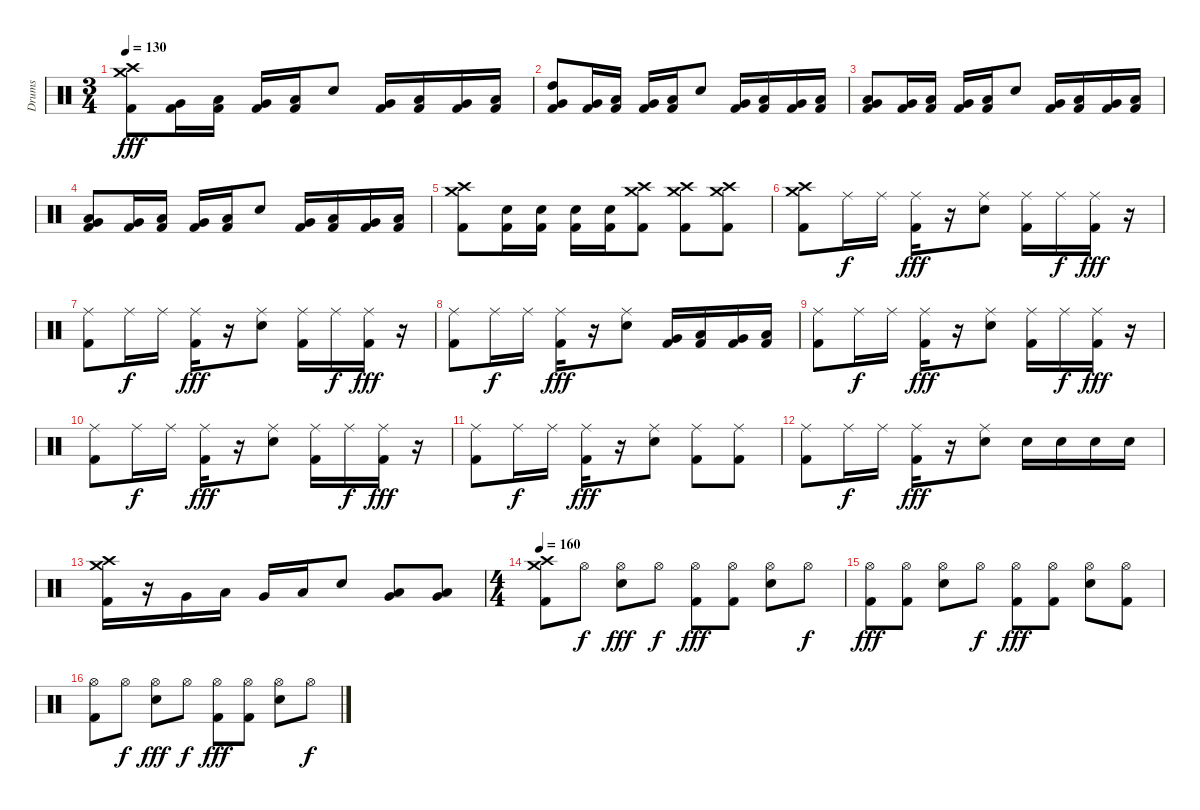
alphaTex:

\track ("Drums" "Drums") {instrument percussion}
\staff {score}
\articulation defaults
\ts (3 4)
\tempo 130
\clef neutral
\ks c
("Kick (hit) 2" "Crash medium (hit)" "Crash high (hit)").8{dy fff} ("Kick (hit) 2" "Very Low Tom (hit)").16 ("Kick (hit) 2" "Low Tom (hit)").16 ("Kick (hit) 2" "Very Low Tom (hit)").16 ("Kick (hit) 2" "Low Tom (hit)").16 "Electric Snare (hit)".8 ("Kick (hit) 2" "Very Low Tom (hit)").16 ("Kick (hit) 2" "Low Tom (hit)").16 ("Kick (hit) 2" "Very Low Tom (hit)").16 ("Kick (hit) 2" "Low Tom (hit)").16 |
("Kick (hit) 2" "Very Low Tom (hit)" "High Tom (hit)").8 ("Kick (hit) 2" "Very Low Tom (hit)").16 ("Kick (hit) 2" "Low Tom (hit)").16 ("Kick (hit) 2" "Very Low Tom (hit)").16 ("Kick (hit) 2" "Low Tom (hit)").16 "Electric Snare (hit)".8 ("Kick (hit) 2" "Very Low Tom (hit)").16 ("Kick (hit) 2" "Low Tom (hit)").16 ("Kick (hit) 2" "Very Low Tom (hit)").16 ("Kick (hit) 2" "Low Tom (hit)").16 |
("Kick (hit) 2" "Low Tom (hit)" "Very Low Tom (hit)").8 ("Kick (hit) 2" "Very Low Tom (hit)").16 ("Kick (hit) 2" "Low Tom (hit)").16 ("Kick (hit) 2" "Very Low Tom (hit)").16 ("Kick (hit) 2" "Low Tom (hit)").16 "Electric Snare (hit)".8 ("Kick (hit) 2" "Very Low Tom (hit)").16 ("Kick (hit) 2" "Low Tom (hit)").16 ("Kick (hit) 2" "Very Low Tom (hit)").16 ("Kick (hit) 2" "Low Tom (hit)").16 |
("Kick (hit) 2" "Low Tom (hit)" "Very Low Tom (hit)").8 ("Kick (hit) 2" "Very Low Tom (hit)").16 ("Kick (hit) 2" "Low Tom (hit)").16 ("Kick (hit) 2" "Very Low Tom (hit)").16 ("Kick (hit) 2" "Low Tom (hit)").16 "Electric Snare (hit)".8 ("Kick (hit) 2" "Very Low Tom (hit)").16 ("Kick (hit) 2" "Low Tom (hit)").16 ("Kick (hit) 2" "Very Low Tom (hit)").16 ("Kick (hit) 2" "Low Tom (hit)").16 |
("Kick (hit) 2" "Crash high (hit)" "Crash medium (hit)").8 ("Kick (hit) 2" "Electric Snare (hit)").16 ("Kick (hit) 2" "Electric Snare (hit)").16 ("Kick (hit) 2" "Electric Snare (hit)").16 ("Kick (hit) 2" "Electric Snare (hit)").16 ("Kick (hit) 2" "Crash medium (hit)" "Crash high (hit)").8 ("Kick (hit) 2" "Crash medium (hit)" "Crash high (hit)").8 ("Kick (hit) 2" "Crash medium (hit)" "Crash high (hit)").8 |
("Kick (hit) 2" "Crash high (hit)" "Crash medium (hit)").8 "Ride (middle)".16{dy f} "Ride (middle)".16 ("Kick (hit) 2" "Ride (middle)").16{dy fff} r.16 ("Electric Snare (hit)" "Ride (middle)").8 ("Kick (hit) 2" "Ride (middle)").16 "Ride (middle)".16{dy f} ("Kick (hit) 2" "Ride (middle)").16{dy fff} r.16 |
("Kick (hit) 2" "Ride (middle)").8 "Ride (middle)".16{dy f} "Ride (middle)".16 ("Kick (hit) 2" "Ride (middle)").16{dy fff} r.16 ("Electric Snare (hit)" "Ride (middle)").8 ("Kick (hit) 2" "Ride (middle)").16 "Ride (middle)".16{dy f} ("Kick (hit) 2" "Ride (middle)").16{dy fff} r.16 |
("Kick (hit) 2" "Ride (middle)").8 "Ride (middle)".16{dy f} "Ride (middle)".16 ("Kick (hit) 2" "Ride (middle)").16{dy fff} r.16 ("Electric Snare (hit)" "Ride (middle)").8 ("Kick (hit) 2" "Very Low Tom (hit)").16 ("Kick (hit) 2" "Low Tom (hit)").16 ("Kick (hit) 2" "Very Low Tom (hit)").16 ("Kick (hit) 2" "Low Tom (hit)").16 |
("Kick (hit) 2" "Ride (middle)").8 "Ride (middle)".16{dy f} "Ride (middle)".16 ("Kick (hit) 2" "Ride (middle)").16{dy fff} r.16 ("Electric Snare (hit)" "Ride (middle)").8 ("Kick (hit) 2" "Ride (middle)").16 "Ride (middle)".16{dy f} ("Kick (hit) 2" "Ride (middle)").16{dy fff} r.16 |
("Kick (hit) 2" "Ride (middle)").8 "Ride (middle)".16{dy f} "Ride (middle)".16 ("Kick (hit) 2" "Ride (middle)").16{dy fff} r.16 ("Electric Snare (hit)" "Ride (middle)").8 ("Kick (hit) 2" "Ride (middle)").16 "Ride (middle)".16{dy f} ("Kick (hit) 2" "Ride (middle)").16{dy fff} r.16 |
("Kick (hit) 2" "Ride (middle)").8 "Ride (middle)".16{dy f} "Ride (middle)".16 ("Kick (hit) 2" "Ride (middle)").16{dy fff} r.16 ("Electric Snare (hit)" "Ride (middle)").8 ("Kick (hit) 2" "Ride (middle)").8 ("Kick (hit) 2" "Ride (middle)").8 |
("Kick (hit) 2" "Ride (middle)").8 "Ride (middle)".16{dy f} "Ride (middle)".16 ("Kick (hit) 2" "Ride (middle)").16{dy fff} r.16 ("Electric Snare (hit)" "Ride (middle)").8 "Electric Snare (hit)".16 "Electric Snare (hit)".16 "Electric Snare (hit)".16 "Electric Snare (hit)".16 |
("Kick (hit) 2" "Crash medium (hit)" "Crash high (hit)").16 r.16 "Very Low Tom (hit)".16 "Low Tom (hit)".16 "Very Low Tom (hit)".16 "Low Tom (hit)".16 "Electric Snare (hit)".8 ("Low Tom (hit)" "Very Low Tom (hit)").8 ("Low Tom (hit)" "Very Low Tom (hit)").8 |
\ts (4 4)
\tempo 160
("Kick (hit) 2" "Crash medium (hit)" "Crash high (hit)").8 "Hi-Hat (open)".8{dy f} ("Electric Snare (hit)" "Hi-Hat (open)").8{dy fff} "Hi-Hat (open)".8{dy f} ("Kick (hit) 2" "Hi-Hat (open)").8{dy fff} ("Kick (hit) 2" "Hi-Hat (open)").8 ("Electric Snare (hit)" "Hi-Hat (open)").8 "Hi-Hat (open)".8{dy f} |
("Kick (hit) 2" "Hi-Hat (open)").8{dy fff} ("Kick (hit) 2" "Hi-Hat (open)").8 ("Electric Snare (hit)" "Hi-Hat (open)").8 "Hi-Hat (open)".8{dy f} ("Kick (hit) 2" "Hi-Hat (open)").8{dy fff} ("Kick (hit) 2" "Hi-Hat (open)").8 ("Electric Snare (hit)" "Hi-Hat (open)").8 ("Kick (hit) 2" "Hi-Hat (open)").8 |
("Kick (hit) 2" "Hi-Hat (open)").8 "Hi-Hat (open)".8{dy f} ("Electric Snare (hit)" "Hi-Hat (open)").8{dy fff} "Hi-Hat (open)".8{dy f} ("Kick (hit) 2" "Hi-Hat (open)").8{dy fff} ("Kick (hit) 2" "Hi-Hat (open)").8 ("Electric Snare (hit)" "Hi-Hat (open)").8 "Hi-Hat (open)".8{dy f}
